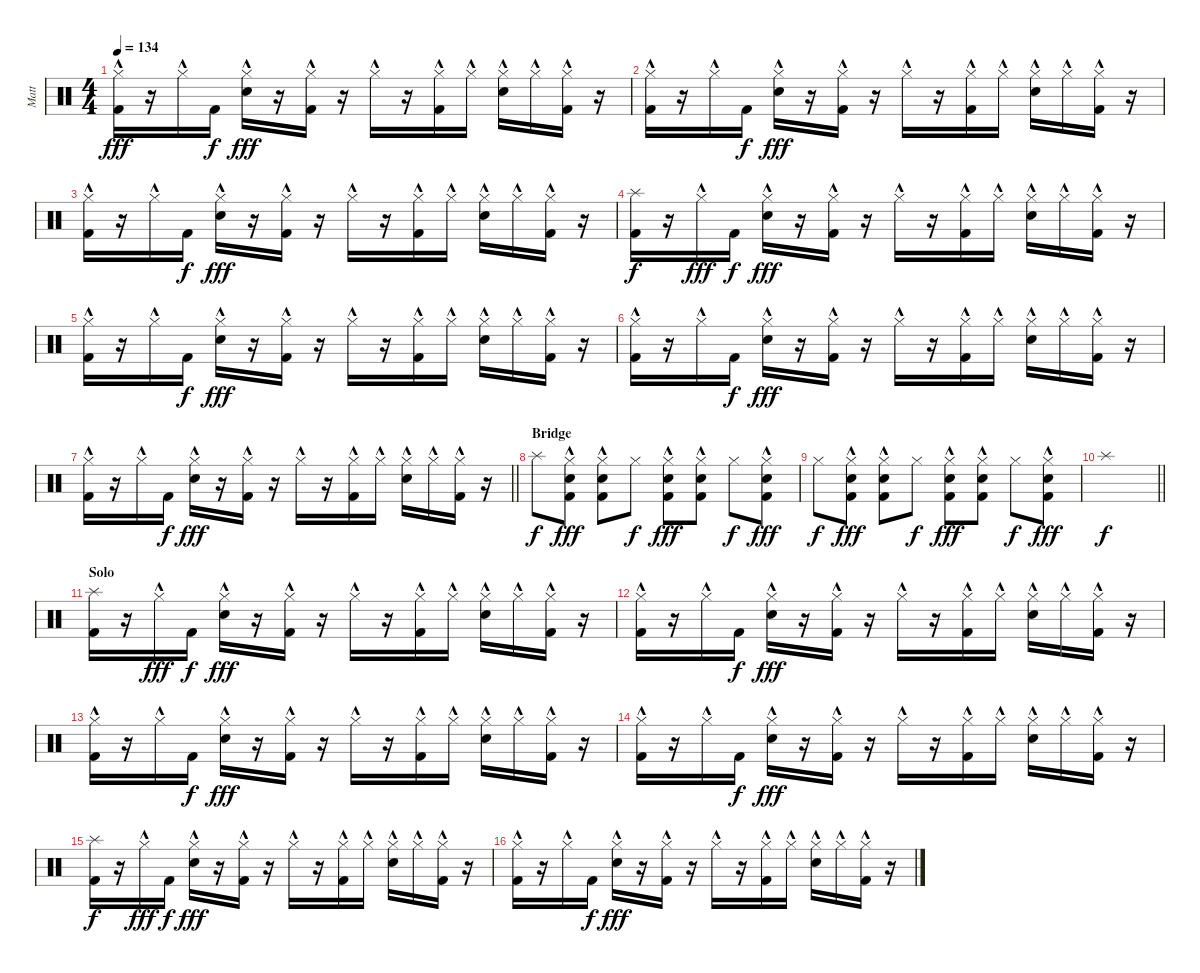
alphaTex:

\track ("Matt" "Matt") {instrument percussion}
\staff {score}
\articulation defaults
\ts (4 4)
\tempo 134
\clef neutral
\ks c
("Hi-Hat (closed)"{hac} "Kick (hit) 2").16{dy fff} r.16 "Hi-Hat (closed)"{hac}.16 "Kick (hit) 2".16{dy f} ("Hi-Hat (closed)"{hac} "Snare (hit) 2").16{dy fff} r.16 ("Hi-Hat (closed)"{hac} "Kick (hit) 2").16 r.16 "Hi-Hat (closed)"{hac}.16 r.16 ("Hi-Hat (closed)"{hac} "Kick (hit) 2").16 "Hi-Hat (closed)"{hac}.16 ("Hi-Hat (closed)"{hac} "Snare (hit) 2").16 "Hi-Hat (closed)"{hac}.16 ("Hi-Hat (closed)"{hac} "Kick (hit) 2").16 r.16 |
("Hi-Hat (closed)"{hac} "Kick (hit) 2").16 r.16 "Hi-Hat (closed)"{hac}.16 "Kick (hit) 2".16{dy f} ("Hi-Hat (closed)"{hac} "Snare (hit) 2").16{dy fff} r.16 ("Hi-Hat (closed)"{hac} "Kick (hit) 2").16 r.16 "Hi-Hat (closed)"{hac}.16 r.16 ("Hi-Hat (closed)"{hac} "Kick (hit) 2").16 "Hi-Hat (closed)"{hac}.16 ("Hi-Hat (closed)"{hac} "Snare (hit) 2").16 "Hi-Hat (closed)"{hac}.16 ("Hi-Hat (closed)"{hac} "Kick (hit) 2").16 r.16 |
("Hi-Hat (closed)"{hac} "Kick (hit) 2").16 r.16 "Hi-Hat (closed)"{hac}.16 "Kick (hit) 2".16{dy f} ("Hi-Hat (closed)"{hac} "Snare (hit) 2").16{dy fff} r.16 ("Hi-Hat (closed)"{hac} "Kick (hit) 2").16 r.16 "Hi-Hat (closed)"{hac}.16 r.16 ("Hi-Hat (closed)"{hac} "Kick (hit) 2").16 "Hi-Hat (closed)"{hac}.16 ("Hi-Hat (closed)"{hac} "Snare (hit) 2").16 "Hi-Hat (closed)"{hac}.16 ("Hi-Hat (closed)"{hac} "Kick (hit) 2").16 r.16 |
("Splash (hit)" "Kick (hit) 2").16{dy f} r.16 "Hi-Hat (closed)"{hac}.16{dy fff} "Kick (hit) 2".16{dy f} ("Hi-Hat (closed)"{hac} "Snare (hit) 2").16{dy fff} r.16 ("Hi-Hat (closed)"{hac} "Kick (hit) 2").16 r.16 "Hi-Hat (closed)"{hac}.16 r.16 ("Hi-Hat (closed)"{hac} "Kick (hit) 2").16 "Hi-Hat (closed)"{hac}.16 ("Hi-Hat (closed)"{hac} "Snare (hit) 2").16 "Hi-Hat (closed)"{hac}.16 ("Hi-Hat (closed)"{hac} "Kick (hit) 2").16 r.16 |
("Hi-Hat (closed)"{hac} "Kick (hit) 2").16 r.16 "Hi-Hat (closed)"{hac}.16 "Kick (hit) 2".16{dy f} ("Hi-Hat (closed)"{hac} "Snare (hit) 2").16{dy fff} r.16 ("Hi-Hat (closed)"{hac} "Kick (hit) 2").16 r.16 "Hi-Hat (closed)"{hac}.16 r.16 ("Hi-Hat (closed)"{hac} "Kick (hit) 2").16 "Hi-Hat (closed)"{hac}.16 ("Hi-Hat (closed)"{hac} "Snare (hit) 2").16 "Hi-Hat (closed)"{hac}.16 ("Hi-Hat (closed)"{hac} "Kick (hit) 2").16 r.16 |
("Hi-Hat (closed)"{hac} "Kick (hit) 2").16 r.16 "Hi-Hat (closed)"{hac}.16 "Kick (hit) 2".16{dy f} ("Hi-Hat (closed)"{hac} "Snare (hit) 2").16{dy fff} r.16 ("Hi-Hat (closed)"{hac} "Kick (hit) 2").16 r.16 "Hi-Hat (closed)"{hac}.16 r.16 ("Hi-Hat (closed)"{hac} "Kick (hit) 2").16 "Hi-Hat (closed)"{hac}.16 ("Hi-Hat (closed)"{hac} "Snare (hit) 2").16 "Hi-Hat (closed)"{hac}.16 ("Hi-Hat (closed)"{hac} "Kick (hit) 2").16 r.16 |
\barLineRight lightlight
("Hi-Hat (closed)"{hac} "Kick (hit) 2").16 r.16 "Hi-Hat (closed)"{hac}.16 "Kick (hit) 2".16{dy f} ("Hi-Hat (closed)"{hac} "Snare (hit) 2").16{dy fff} r.16 ("Hi-Hat (closed)"{hac} "Kick (hit) 2").16 r.16 "Hi-Hat (closed)"{hac}.16 r.16 ("Hi-Hat (closed)"{hac} "Kick (hit) 2").16 "Hi-Hat (closed)"{hac}.16 ("Hi-Hat (closed)"{hac} "Snare (hit) 2").16 "Hi-Hat (closed)"{hac}.16 ("Hi-Hat (closed)"{hac} "Kick (hit) 2").16 r.16 |
\section ("" "Bridge")
"Splash (hit)".8{dy f} ("Hi-Hat (closed)"{hac} "Snare (hit) 2" "Kick (hit) 2").8{dy fff} ("Hi-Hat (closed)"{hac} "Snare (hit) 2" "Kick (hit) 2").8 "Hi-Hat (closed)".8{dy f} ("Hi-Hat (closed)"{hac} "Snare (hit) 2" "Kick (hit) 2").8{dy fff} ("Hi-Hat (closed)"{hac} "Snare (hit) 2" "Kick (hit) 2").8 "Hi-Hat (closed)".8{dy f} ("Hi-Hat (closed)"{hac} "Snare (hit) 2" "Kick (hit) 2").8{dy fff} |
"Hi-Hat (closed)".8{dy f} ("Hi-Hat (closed)"{hac} "Snare (hit) 2" "Kick (hit) 2").8{dy fff} ("Hi-Hat (closed)"{hac} "Snare (hit) 2" "Kick (hit) 2").8 "Hi-Hat (closed)".8{dy f} ("Hi-Hat (closed)"{hac} "Snare (hit) 2" "Kick (hit) 2").8{dy fff} ("Hi-Hat (closed)"{hac} "Snare (hit) 2" "Kick (hit) 2").8 "Hi-Hat (closed)".8{dy f} ("Hi-Hat (closed)"{hac} "Snare (hit) 2" "Kick (hit) 2").8{dy fff} |
\barLineRight lightlight "Splash (hit)".1{dy f}
|
\section ("" "Solo")
("Splash (hit)" "Kick (hit) 2").16 r.16 "Hi-Hat (closed)"{hac}.16{dy fff} "Kick (hit) 2".16{dy f} ("Hi-Hat (closed)"{hac} "Snare (hit) 2").16{dy fff} r.16 ("Hi-Hat (closed)"{hac} "Kick (hit) 2").16 r.16 "Hi-Hat (closed)"{hac}.16 r.16 ("Hi-Hat (closed)"{hac} "Kick (hit) 2").16 "Hi-Hat (closed)"{hac}.16 ("Hi-Hat (closed)"{hac} "Snare (hit) 2").16 "Hi-Hat (closed)"{hac}.16 ("Hi-Hat (closed)"{hac} "Kick (hit) 2").16 r.16 |
("Hi-Hat (closed)"{hac} "Kick (hit) 2").16 r.16 "Hi-Hat (closed)"{hac}.16 "Kick (hit) 2".16{dy f} ("Hi-Hat (closed)"{hac} "Snare (hit) 2").16{dy fff} r.16 ("Hi-Hat (closed)"{hac} "Kick (hit) 2").16 r.16 "Hi-Hat (closed)"{hac}.16 r.16 ("Hi-Hat (closed)"{hac} "Kick (hit) 2").16 "Hi-Hat (closed)"{hac}.16 ("Hi-Hat (closed)"{hac} "Snare (hit) 2").16 "Hi-Hat (closed)"{hac}.16 ("Hi-Hat (closed)"{hac} "Kick (hit) 2").16 r.16 |
("Hi-Hat (closed)"{hac} "Kick (hit) 2").16 r.16 "Hi-Hat (closed)"{hac}.16 "Kick (hit) 2".16{dy f} ("Hi-Hat (closed)"{hac} "Snare (hit) 2").16{dy fff} r.16 ("Hi-Hat (closed)"{hac} "Kick (hit) 2").16 r.16 "Hi-Hat (closed)"{hac}.16 r.16 ("Hi-Hat (closed)"{hac} "Kick (hit) 2").16 "Hi-Hat (closed)"{hac}.16 ("Hi-Hat (closed)"{hac} "Snare (hit) 2").16 "Hi-Hat (closed)"{hac}.16 ("Hi-Hat (closed)"{hac} "Kick (hit) 2").16 r.16 |
("Hi-Hat (closed)"{hac} "Kick (hit) 2").16 r.16 "Hi-Hat (closed)"{hac}.16 "Kick (hit) 2".16{dy f} ("Hi-Hat (closed)"{hac} "Snare (hit) 2").16{dy fff} r.16 ("Hi-Hat (closed)"{hac} "Kick (hit) 2").16 r.16 "Hi-Hat (closed)"{hac}.16 r.16 ("Hi-Hat (closed)"{hac} "Kick (hit) 2").16 "Hi-Hat (closed)"{hac}.16 ("Hi-Hat (closed)"{hac} "Snare (hit) 2").16 "Hi-Hat (closed)"{hac}.16 ("Hi-Hat (closed)"{hac} "Kick (hit) 2").16 r.16 |
("Splash (hit)" "Kick (hit) 2").16{dy f} r.16 "Hi-Hat (closed)"{hac}.16{dy fff} "Kick (hit) 2".16{dy f} ("Hi-Hat (closed)"{hac} "Snare (hit) 2").16{dy fff} r.16 ("Hi-Hat (closed)"{hac} "Kick (hit) 2").16 r.16 "Hi-Hat (closed)"{hac}.16 r.16 ("Hi-Hat (closed)"{hac} "Kick (hit) 2").16 "Hi-Hat (closed)"{hac}.16 ("Hi-Hat (closed)"{hac} "Snare (hit) 2").16 "Hi-Hat (closed)"{hac}.16 ("Hi-Hat (closed)"{hac} "Kick (hit) 2").16 r.16 |
("Hi-Hat (closed)"{hac} "Kick (hit) 2").16 r.16 "Hi-Hat (closed)"{hac}.16 "Kick (hit) 2".16{dy f} ("Hi-Hat (closed)"{hac} "Snare (hit) 2").16{dy fff} r.16 ("Hi-Hat (closed)"{hac} "Kick (hit) 2").16 r.16 "Hi-Hat (closed)"{hac}.16 r.16 ("Hi-Hat (closed)"{hac} "Kick (hit) 2").16 "Hi-Hat (closed)"{hac}.16 ("Hi-Hat (closed)"{hac} "Snare (hit) 2").16 "Hi-Hat (closed)"{hac}.16 ("Hi-Hat (closed)"{hac} "Kick (hit) 2").16 r.16
